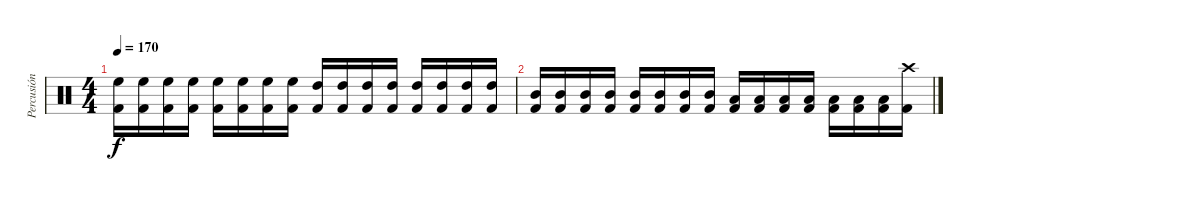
\track ("Percusión" "Percusión") {instrument percussion}
\staff {score}
\articulation defaults
\ts (4 4)
\tempo 170
\clef neutral
\ks c
("High Floor Tom (hit)" "Kick (hit) 2").16{dy f} ("High Floor Tom (hit)" "Kick (hit) 2").16 ("High Floor Tom (hit)" "Kick (hit) 2").16 ("High Floor Tom (hit)" "Kick (hit) 2").16 ("High Floor Tom (hit)" "Kick (hit) 2").16 ("High Floor Tom (hit)" "Kick (hit) 2").16 ("High Floor Tom (hit)" "Kick (hit) 2").16 ("High Floor Tom (hit)" "Kick (hit) 2").16 ("High Tom (hit)" "Kick (hit) 2").16 ("High Tom (hit)" "Kick (hit) 2").16 ("High Tom (hit)" "Kick (hit) 2").16 ("High Tom (hit)" "Kick (hit) 2").16 ("High Tom (hit)" "Kick (hit) 2").16 ("High Tom (hit)" "Kick (hit) 2").16 ("High Tom (hit)" "Kick (hit) 2").16 ("High Tom (hit)" "Kick (hit) 2").16 |
("Mid Tom (hit)" "Kick (hit) 2").16 ("Mid Tom (hit)" "Kick (hit) 2").16 ("Mid Tom (hit)" "Kick (hit) 2").16 ("Mid Tom (hit)" "Kick (hit) 2").16 ("Mid Tom (hit)" "Kick (hit) 2").16 ("Mid Tom (hit)" "Kick (hit) 2").16 ("Mid Tom (hit)" "Kick (hit) 2").16 ("Mid Tom (hit)" "Kick (hit) 2").16 ("Low Tom (hit)" "Kick (hit) 2").16 ("Low Tom (hit)" "Kick (hit) 2").16 ("Low Tom (hit)" "Kick (hit) 2").16 ("Low Tom (hit)" "Kick (hit) 2").16 ("Low Tom (hit)" "Kick (hit) 2").16 ("Low Tom (hit)" "Kick (hit) 2").16 ("Low Tom (hit)" "Kick (hit) 2").16 ("Crash high (hit)" "Kick (hit) 2").16
